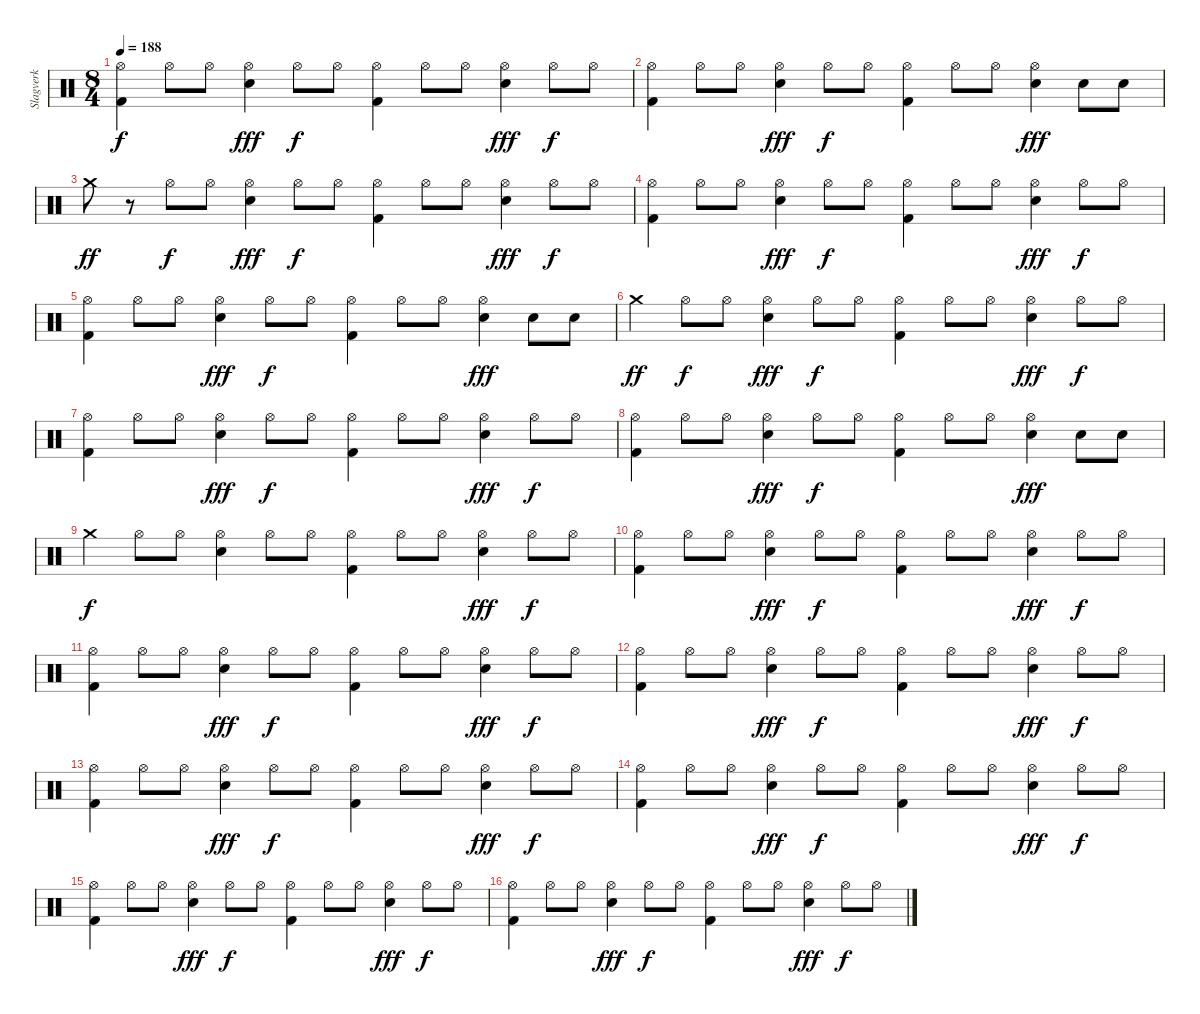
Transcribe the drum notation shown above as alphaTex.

\track ("Slagverk" "Slagverk") {instrument percussion}
\staff {score}
\articulation defaults
\ts (8 4)
\tempo 188
\clef neutral
\ks c
("Hi-Hat (open)" "Kick (hit) 2").4{dy f} "Hi-Hat (open)".8 "Hi-Hat (open)".8 ("Hi-Hat (open)" "Snare (hit) 2").4{dy fff} "Hi-Hat (open)".8{dy f} "Hi-Hat (open)".8 ("Hi-Hat (open)" "Kick (hit) 2").4 "Hi-Hat (open)".8 "Hi-Hat (open)".8 ("Hi-Hat (open)" "Snare (hit) 2").4{dy fff} "Hi-Hat (open)".8{dy f} "Hi-Hat (open)".8 |
("Hi-Hat (open)" "Kick (hit) 2").4 "Hi-Hat (open)".8 "Hi-Hat (open)".8 ("Hi-Hat (open)" "Snare (hit) 2").4{dy fff} "Hi-Hat (open)".8{dy f} "Hi-Hat (open)".8 ("Hi-Hat (open)" "Kick (hit) 2").4 "Hi-Hat (open)".8 "Hi-Hat (open)".8 ("Hi-Hat (open)" "Snare (hit) 2").4{dy fff} "Snare (hit) 2".8 "Snare (hit) 2".8 |
"Crash medium (hit)".8{dy ff} r.8 "Hi-Hat (open)".8{dy f} "Hi-Hat (open)".8 ("Hi-Hat (open)" "Snare (hit) 2").4{dy fff} "Hi-Hat (open)".8{dy f} "Hi-Hat (open)".8 ("Hi-Hat (open)" "Kick (hit) 2").4 "Hi-Hat (open)".8 "Hi-Hat (open)".8 ("Hi-Hat (open)" "Snare (hit) 2").4{dy fff} "Hi-Hat (open)".8{dy f} "Hi-Hat (open)".8 |
("Hi-Hat (open)" "Kick (hit) 2").4 "Hi-Hat (open)".8 "Hi-Hat (open)".8 ("Hi-Hat (open)" "Snare (hit) 2").4{dy fff} "Hi-Hat (open)".8{dy f} "Hi-Hat (open)".8 ("Hi-Hat (open)" "Kick (hit) 2").4 "Hi-Hat (open)".8 "Hi-Hat (open)".8 ("Hi-Hat (open)" "Snare (hit) 2").4{dy fff} "Hi-Hat (open)".8{dy f} "Hi-Hat (open)".8 |
("Hi-Hat (open)" "Kick (hit) 2").4 "Hi-Hat (open)".8 "Hi-Hat (open)".8 ("Hi-Hat (open)" "Snare (hit) 2").4{dy fff} "Hi-Hat (open)".8{dy f} "Hi-Hat (open)".8 ("Hi-Hat (open)" "Kick (hit) 2").4 "Hi-Hat (open)".8 "Hi-Hat (open)".8 ("Hi-Hat (open)" "Snare (hit) 2").4{dy fff} "Snare (hit) 2".8 "Snare (hit) 2".8 |
"Crash medium (hit)".4{dy ff} "Hi-Hat (open)".8{dy f} "Hi-Hat (open)".8 ("Hi-Hat (open)" "Snare (hit) 2").4{dy fff} "Hi-Hat (open)".8{dy f} "Hi-Hat (open)".8 ("Hi-Hat (open)" "Kick (hit) 2").4 "Hi-Hat (open)".8 "Hi-Hat (open)".8 ("Hi-Hat (open)" "Snare (hit) 2").4{dy fff} "Hi-Hat (open)".8{dy f} "Hi-Hat (open)".8 |
("Hi-Hat (open)" "Kick (hit) 2").4 "Hi-Hat (open)".8 "Hi-Hat (open)".8 ("Hi-Hat (open)" "Snare (hit) 2").4{dy fff} "Hi-Hat (open)".8{dy f} "Hi-Hat (open)".8 ("Hi-Hat (open)" "Kick (hit) 2").4 "Hi-Hat (open)".8 "Hi-Hat (open)".8 ("Hi-Hat (open)" "Snare (hit) 2").4{dy fff} "Hi-Hat (open)".8{dy f} "Hi-Hat (open)".8 |
("Hi-Hat (open)" "Kick (hit) 2").4 "Hi-Hat (open)".8 "Hi-Hat (open)".8 ("Hi-Hat (open)" "Snare (hit) 2").4{dy fff} "Hi-Hat (open)".8{dy f} "Hi-Hat (open)".8 ("Hi-Hat (open)" "Kick (hit) 2").4 "Hi-Hat (open)".8 "Hi-Hat (open)".8 ("Hi-Hat (open)" "Snare (hit) 2").4{dy fff} "Snare (hit) 2".8 "Snare (hit) 2".8 |
"Crash medium (hit)".4{dy f} "Hi-Hat (open)".8 "Hi-Hat (open)".8 ("Hi-Hat (open)" "Snare (hit) 2").4 "Hi-Hat (open)".8 "Hi-Hat (open)".8 ("Hi-Hat (open)" "Kick (hit) 2").4 "Hi-Hat (open)".8 "Hi-Hat (open)".8 ("Hi-Hat (open)" "Snare (hit) 2").4{dy fff} "Hi-Hat (open)".8{dy f} "Hi-Hat (open)".8 |
("Hi-Hat (open)" "Kick (hit) 2").4 "Hi-Hat (open)".8 "Hi-Hat (open)".8 ("Hi-Hat (open)" "Snare (hit) 2").4{dy fff} "Hi-Hat (open)".8{dy f} "Hi-Hat (open)".8 ("Hi-Hat (open)" "Kick (hit) 2").4 "Hi-Hat (open)".8 "Hi-Hat (open)".8 ("Hi-Hat (open)" "Snare (hit) 2").4{dy fff} "Hi-Hat (open)".8{dy f} "Hi-Hat (open)".8 |
("Hi-Hat (open)" "Kick (hit) 2").4 "Hi-Hat (open)".8 "Hi-Hat (open)".8 ("Hi-Hat (open)" "Snare (hit) 2").4{dy fff} "Hi-Hat (open)".8{dy f} "Hi-Hat (open)".8 ("Hi-Hat (open)" "Kick (hit) 2").4 "Hi-Hat (open)".8 "Hi-Hat (open)".8 ("Hi-Hat (open)" "Snare (hit) 2").4{dy fff} "Hi-Hat (open)".8{dy f} "Hi-Hat (open)".8 |
("Hi-Hat (open)" "Kick (hit) 2").4 "Hi-Hat (open)".8 "Hi-Hat (open)".8 ("Hi-Hat (open)" "Snare (hit) 2").4{dy fff} "Hi-Hat (open)".8{dy f} "Hi-Hat (open)".8 ("Hi-Hat (open)" "Kick (hit) 2").4 "Hi-Hat (open)".8 "Hi-Hat (open)".8 ("Hi-Hat (open)" "Snare (hit) 2").4{dy fff} "Hi-Hat (open)".8{dy f} "Hi-Hat (open)".8 |
("Hi-Hat (open)" "Kick (hit) 2").4 "Hi-Hat (open)".8 "Hi-Hat (open)".8 ("Hi-Hat (open)" "Snare (hit) 2").4{dy fff} "Hi-Hat (open)".8{dy f} "Hi-Hat (open)".8 ("Hi-Hat (open)" "Kick (hit) 2").4 "Hi-Hat (open)".8 "Hi-Hat (open)".8 ("Hi-Hat (open)" "Snare (hit) 2").4{dy fff} "Hi-Hat (open)".8{dy f} "Hi-Hat (open)".8 |
("Hi-Hat (open)" "Kick (hit) 2").4 "Hi-Hat (open)".8 "Hi-Hat (open)".8 ("Hi-Hat (open)" "Snare (hit) 2").4{dy fff} "Hi-Hat (open)".8{dy f} "Hi-Hat (open)".8 ("Hi-Hat (open)" "Kick (hit) 2").4 "Hi-Hat (open)".8 "Hi-Hat (open)".8 ("Hi-Hat (open)" "Snare (hit) 2").4{dy fff} "Hi-Hat (open)".8{dy f} "Hi-Hat (open)".8 |
("Hi-Hat (open)" "Kick (hit) 2").4 "Hi-Hat (open)".8 "Hi-Hat (open)".8 ("Hi-Hat (open)" "Snare (hit) 2").4{dy fff} "Hi-Hat (open)".8{dy f} "Hi-Hat (open)".8 ("Hi-Hat (open)" "Kick (hit) 2").4 "Hi-Hat (open)".8 "Hi-Hat (open)".8 ("Hi-Hat (open)" "Snare (hit) 2").4{dy fff} "Hi-Hat (open)".8{dy f} "Hi-Hat (open)".8 |
("Hi-Hat (open)" "Kick (hit) 2").4 "Hi-Hat (open)".8 "Hi-Hat (open)".8 ("Hi-Hat (open)" "Snare (hit) 2").4{dy fff} "Hi-Hat (open)".8{dy f} "Hi-Hat (open)".8 ("Hi-Hat (open)" "Kick (hit) 2").4 "Hi-Hat (open)".8 "Hi-Hat (open)".8 ("Hi-Hat (open)" "Snare (hit) 2").4{dy fff} "Hi-Hat (open)".8{dy f} "Hi-Hat (open)".8
